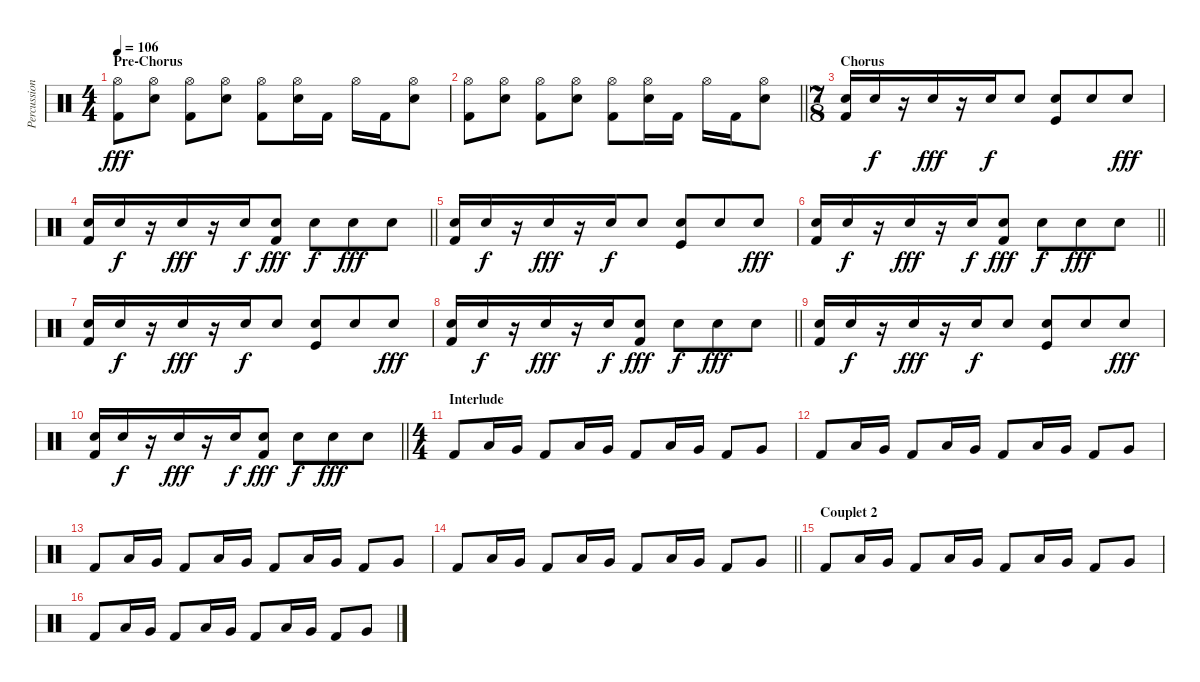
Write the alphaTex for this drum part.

\track ("Percussion 2" "Percussion") {instrument percussion}
\staff {score}
\articulation defaults
\ts (4 4)
\section ("" "Pre-Chorus")
\tempo 106
\clef neutral
\ks c
("Hi-Hat (open)" "Kick (hit) 2").8{dy fff} ("Hi-Hat (open)" "Electric Snare (hit)").8 ("Hi-Hat (open)" "Kick (hit) 2").8 ("Hi-Hat (open)" "Electric Snare (hit)").8 ("Hi-Hat (open)" "Kick (hit) 2").8 ("Hi-Hat (open)" "Electric Snare (hit)").16 "Kick (hit) 2".16 "Hi-Hat (open)".16 "Kick (hit) 2".16 ("Hi-Hat (open)" "Electric Snare (hit)").8 |
\barLineRight lightlight
("Hi-Hat (open)" "Kick (hit) 2").8 ("Hi-Hat (open)" "Electric Snare (hit)").8 ("Hi-Hat (open)" "Kick (hit) 2").8 ("Hi-Hat (open)" "Electric Snare (hit)").8 ("Hi-Hat (open)" "Kick (hit) 2").8 ("Hi-Hat (open)" "Electric Snare (hit)").16 "Kick (hit) 2".16 "Hi-Hat (open)".16 "Kick (hit) 2".16 ("Hi-Hat (open)" "Electric Snare (hit)").8 |
\ts (7 8)
\section ("" "Chorus")
("Snare (hit) 2" "Kick (hit) 2").16 "Snare (hit) 2".16{dy f} r.16 "Electric Snare (hit)".16{dy fff} r.16 "Snare (hit) 2".16{dy f} "Snare (hit) 2".8 ("Snare (hit) 2" "Kick (hit)").8 "Snare (hit) 2".8 "Electric Snare (hit)".8{dy fff} |
\barLineRight lightlight
("Snare (hit) 2" "Kick (hit) 2").16 "Snare (hit) 2".16{dy f} r.16 "Electric Snare (hit)".16{dy fff} r.16 "Snare (hit) 2".16{dy f} ("Snare (hit) 2" "Kick (hit) 2").8{dy fff} "Snare (hit) 2".8{dy f} "Electric Snare (hit)".8{dy fff} "Electric Snare (hit)".8 |
("Snare (hit) 2" "Kick (hit) 2").16 "Snare (hit) 2".16{dy f} r.16 "Electric Snare (hit)".16{dy fff} r.16 "Snare (hit) 2".16{dy f} "Snare (hit) 2".8 ("Snare (hit) 2" "Kick (hit)").8 "Snare (hit) 2".8 "Electric Snare (hit)".8{dy fff} |
\barLineRight lightlight
("Snare (hit) 2" "Kick (hit) 2").16 "Snare (hit) 2".16{dy f} r.16 "Electric Snare (hit)".16{dy fff} r.16 "Snare (hit) 2".16{dy f} ("Snare (hit) 2" "Kick (hit) 2").8{dy fff} "Snare (hit) 2".8{dy f} "Electric Snare (hit)".8{dy fff} "Electric Snare (hit)".8 |
("Snare (hit) 2" "Kick (hit) 2").16 "Snare (hit) 2".16{dy f} r.16 "Electric Snare (hit)".16{dy fff} r.16 "Snare (hit) 2".16{dy f} "Snare (hit) 2".8 ("Snare (hit) 2" "Kick (hit)").8 "Snare (hit) 2".8 "Electric Snare (hit)".8{dy fff} |
\barLineRight lightlight
("Snare (hit) 2" "Kick (hit) 2").16 "Snare (hit) 2".16{dy f} r.16 "Electric Snare (hit)".16{dy fff} r.16 "Snare (hit) 2".16{dy f} ("Snare (hit) 2" "Kick (hit) 2").8{dy fff} "Snare (hit) 2".8{dy f} "Electric Snare (hit)".8{dy fff} "Electric Snare (hit)".8 |
("Snare (hit) 2" "Kick (hit) 2").16 "Snare (hit) 2".16{dy f} r.16 "Electric Snare (hit)".16{dy fff} r.16 "Snare (hit) 2".16{dy f} "Snare (hit) 2".8 ("Snare (hit) 2" "Kick (hit)").8 "Snare (hit) 2".8 "Electric Snare (hit)".8{dy fff} |
\barLineRight lightlight
("Snare (hit) 2" "Kick (hit) 2").16 "Snare (hit) 2".16{dy f} r.16 "Electric Snare (hit)".16{dy fff} r.16 "Snare (hit) 2".16{dy f} ("Snare (hit) 2" "Kick (hit) 2").8{dy fff} "Snare (hit) 2".8{dy f} "Electric Snare (hit)".8{dy fff} "Electric Snare (hit)".8 |
\ts (4 4)
\section ("" "Interlude")
"Kick (hit) 2".8 "Low Floor Tom (hit)".16 "Very Low Tom (hit)".16 "Kick (hit) 2".8 "Low Floor Tom (hit)".16 "Very Low Tom (hit)".16 "Kick (hit) 2".8 "Low Floor Tom (hit)".16 "Very Low Tom (hit)".16 "Kick (hit) 2".8 "Very Low Tom (hit)".8 |
"Kick (hit) 2".8 "Low Floor Tom (hit)".16 "Very Low Tom (hit)".16 "Kick (hit) 2".8 "Low Floor Tom (hit)".16 "Very Low Tom (hit)".16 "Kick (hit) 2".8 "Low Floor Tom (hit)".16 "Very Low Tom (hit)".16 "Kick (hit) 2".8 "Very Low Tom (hit)".8 |
"Kick (hit) 2".8 "Low Floor Tom (hit)".16 "Very Low Tom (hit)".16 "Kick (hit) 2".8 "Low Floor Tom (hit)".16 "Very Low Tom (hit)".16 "Kick (hit) 2".8 "Low Floor Tom (hit)".16 "Very Low Tom (hit)".16 "Kick (hit) 2".8 "Very Low Tom (hit)".8 |
\barLineRight lightlight "Kick (hit) 2".8 "Low Floor Tom (hit)".16 "Very Low Tom (hit)".16 "Kick (hit) 2".8 "Low Floor Tom (hit)".16 "Very Low Tom (hit)".16 "Kick (hit) 2".8 "Low Floor Tom (hit)".16 "Very Low Tom (hit)".16 "Kick (hit) 2".8 "Very Low Tom (hit)".8
|
\section ("" "Couplet 2")
"Kick (hit) 2".8 "Low Floor Tom (hit)".16 "Very Low Tom (hit)".16 "Kick (hit) 2".8 "Low Floor Tom (hit)".16 "Very Low Tom (hit)".16 "Kick (hit) 2".8 "Low Floor Tom (hit)".16 "Very Low Tom (hit)".16 "Kick (hit) 2".8 "Very Low Tom (hit)".8 |
"Kick (hit) 2".8 "Low Floor Tom (hit)".16 "Very Low Tom (hit)".16 "Kick (hit) 2".8 "Low Floor Tom (hit)".16 "Very Low Tom (hit)".16 "Kick (hit) 2".8 "Low Floor Tom (hit)".16 "Very Low Tom (hit)".16 "Kick (hit) 2".8 "Very Low Tom (hit)".8
